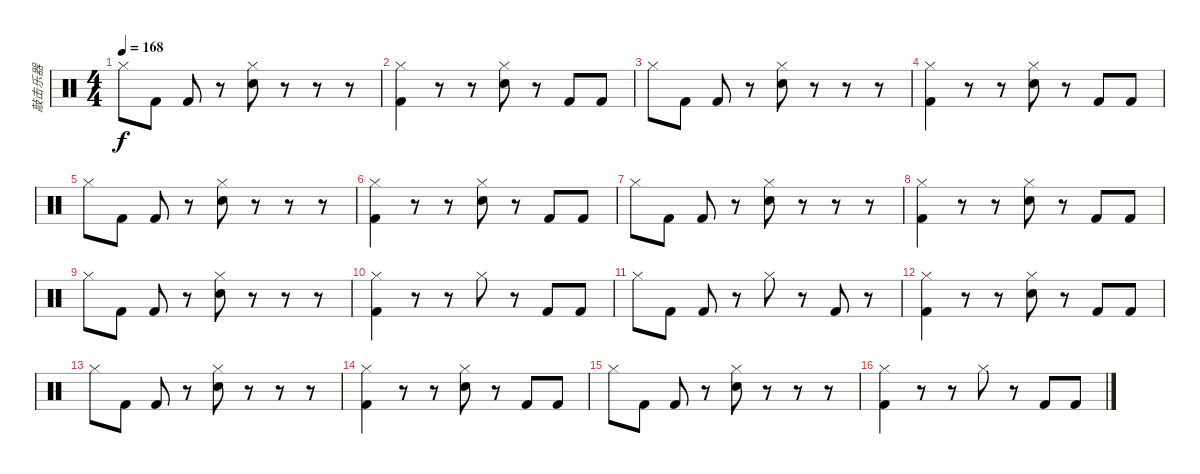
\track ("敲击乐器" "敲击乐器") {instrument percussion}
\staff {score}
\articulation defaults
\ts (4 4)
\tempo 168
\clef neutral
\ks c "Hi-Hat (closed)".8{dy f} "Kick (hit) 2".8 "Kick (hit) 2".8
r.8 ("Hi-Hat (closed)" "Snare (hit) 2").8 r.8 r.8 r.8 |
("Hi-Hat (closed)" "Kick (hit) 2").4 r.8 r.8 ("Hi-Hat (closed)" "Snare (hit) 2").8 r.8 "Kick (hit) 2".8 "Kick (hit) 2".8 |
"Hi-Hat (closed)".8 "Kick (hit) 2".8 "Kick (hit) 2".8 r.8 ("Hi-Hat (closed)" "Snare (hit) 2").8 r.8 r.8 r.8 |
("Hi-Hat (closed)" "Kick (hit) 2").4 r.8 r.8 ("Hi-Hat (closed)" "Snare (hit) 2").8 r.8 "Kick (hit) 2".8 "Kick (hit) 2".8 |
"Hi-Hat (closed)".8 "Kick (hit) 2".8 "Kick (hit) 2".8 r.8 ("Hi-Hat (closed)" "Snare (hit) 2").8 r.8 r.8 r.8 |
("Hi-Hat (closed)" "Kick (hit) 2").4 r.8 r.8 ("Hi-Hat (closed)" "Snare (hit) 2").8 r.8 "Kick (hit) 2".8 "Kick (hit) 2".8 |
"Hi-Hat (closed)".8 "Kick (hit) 2".8 "Kick (hit) 2".8 r.8 ("Hi-Hat (closed)" "Snare (hit) 2").8 r.8 r.8 r.8 |
("Hi-Hat (closed)" "Kick (hit) 2").4 r.8 r.8 ("Hi-Hat (closed)" "Snare (hit) 2").8 r.8 "Kick (hit) 2".8 "Kick (hit) 2".8 |
"Hi-Hat (closed)".8 "Kick (hit) 2".8 "Kick (hit) 2".8 r.8 ("Hi-Hat (closed)" "Snare (hit) 2").8 r.8 r.8 r.8 |
("Hi-Hat (closed)" "Kick (hit) 2").4 r.8 r.8 "Hi-Hat (closed)".8 r.8 "Kick (hit) 2".8 "Kick (hit) 2".8 |
"Hi-Hat (closed)".8 "Kick (hit) 2".8 "Kick (hit) 2".8 r.8 "Hi-Hat (closed)".8 r.8 "Kick (hit) 2".8 r.8 |
("Hi-Hat (closed)" "Kick (hit) 2").4 r.8 r.8 ("Hi-Hat (closed)" "Snare (hit) 2").8 r.8 "Kick (hit) 2".8 "Kick (hit) 2".8 |
"Hi-Hat (closed)".8 "Kick (hit) 2".8 "Kick (hit) 2".8 r.8 ("Hi-Hat (closed)" "Snare (hit) 2").8 r.8 r.8 r.8 |
("Hi-Hat (closed)" "Kick (hit) 2").4 r.8 r.8 ("Hi-Hat (closed)" "Snare (hit) 2").8 r.8 "Kick (hit) 2".8 "Kick (hit) 2".8 |
"Hi-Hat (closed)".8 "Kick (hit) 2".8 "Kick (hit) 2".8 r.8 ("Hi-Hat (closed)" "Snare (hit) 2").8 r.8 r.8 r.8 |
("Hi-Hat (closed)" "Kick (hit) 2").4 r.8 r.8 "Hi-Hat (closed)".8 r.8 "Kick (hit) 2".8 "Kick (hit) 2".8
